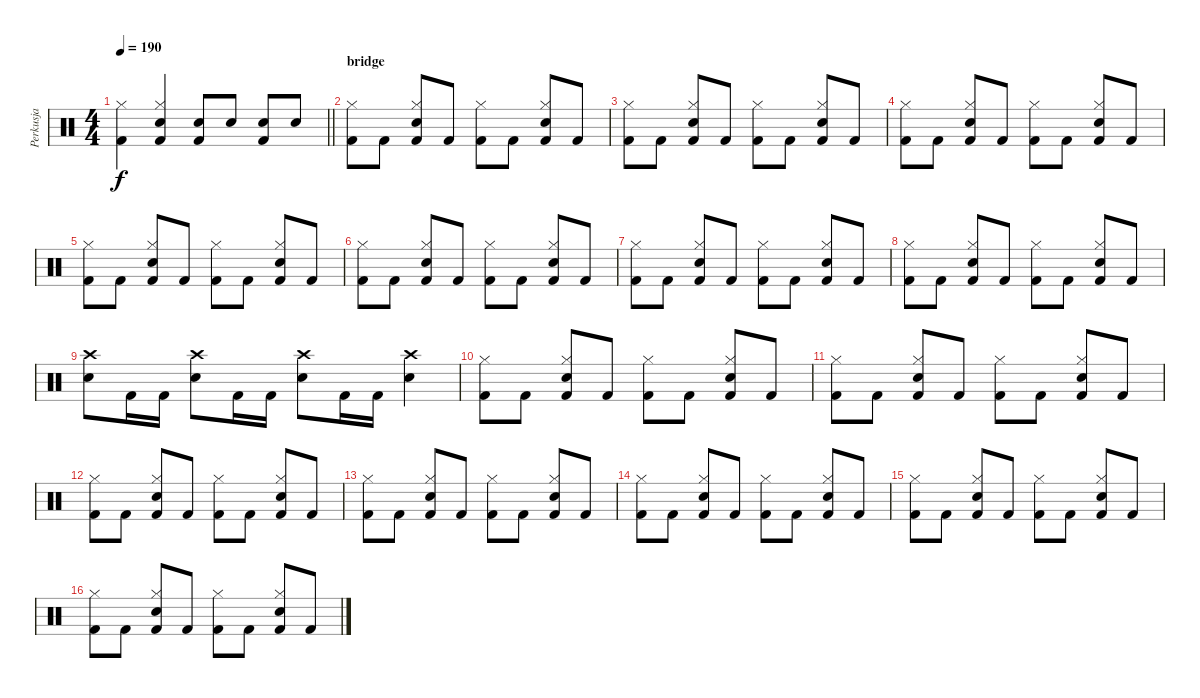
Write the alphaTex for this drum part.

\track ("Perkusja" "Perkusja") {instrument percussion}
\staff {score}
\articulation defaults
\ts (4 4)
\tempo 190
\clef neutral
\barLineRight lightlight
\ks c
("Kick (hit) 2" "Hi-Hat (closed)").4{dy f} ("Kick (hit) 2" "Hi-Hat (closed)" "Snare (hit) 2").4 ("Snare (hit) 2" "Kick (hit) 2").8 "Snare (hit) 2".8 ("Snare (hit) 2" "Kick (hit) 2").8 "Snare (hit) 2".8 |
\section ("" "bridge")
("Kick (hit) 2" "Hi-Hat (closed)").8 "Kick (hit) 2".8 ("Kick (hit) 2" "Snare (hit) 2" "Hi-Hat (closed)").8 "Kick (hit) 2".8 ("Kick (hit) 2" "Hi-Hat (closed)").8 "Kick (hit) 2".8 ("Kick (hit) 2" "Snare (hit) 2" "Hi-Hat (closed)").8 "Kick (hit) 2".8 |
("Kick (hit) 2" "Hi-Hat (closed)").8 "Kick (hit) 2".8 ("Kick (hit) 2" "Snare (hit) 2" "Hi-Hat (closed)").8 "Kick (hit) 2".8 ("Kick (hit) 2" "Hi-Hat (closed)").8 "Kick (hit) 2".8 ("Kick (hit) 2" "Snare (hit) 2" "Hi-Hat (closed)").8 "Kick (hit) 2".8 |
("Kick (hit) 2" "Hi-Hat (closed)").8 "Kick (hit) 2".8 ("Kick (hit) 2" "Snare (hit) 2" "Hi-Hat (closed)").8 "Kick (hit) 2".8 ("Kick (hit) 2" "Hi-Hat (closed)").8 "Kick (hit) 2".8 ("Kick (hit) 2" "Snare (hit) 2" "Hi-Hat (closed)").8 "Kick (hit) 2".8 |
("Kick (hit) 2" "Hi-Hat (closed)").8 "Kick (hit) 2".8 ("Kick (hit) 2" "Snare (hit) 2" "Hi-Hat (closed)").8 "Kick (hit) 2".8 ("Kick (hit) 2" "Hi-Hat (closed)").8 "Kick (hit) 2".8 ("Kick (hit) 2" "Snare (hit) 2" "Hi-Hat (closed)").8 "Kick (hit) 2".8 |
("Kick (hit) 2" "Hi-Hat (closed)").8 "Kick (hit) 2".8 ("Kick (hit) 2" "Snare (hit) 2" "Hi-Hat (closed)").8 "Kick (hit) 2".8 ("Kick (hit) 2" "Hi-Hat (closed)").8 "Kick (hit) 2".8 ("Kick (hit) 2" "Snare (hit) 2" "Hi-Hat (closed)").8 "Kick (hit) 2".8 |
("Kick (hit) 2" "Hi-Hat (closed)").8 "Kick (hit) 2".8 ("Kick (hit) 2" "Snare (hit) 2" "Hi-Hat (closed)").8 "Kick (hit) 2".8 ("Kick (hit) 2" "Hi-Hat (closed)").8 "Kick (hit) 2".8 ("Kick (hit) 2" "Snare (hit) 2" "Hi-Hat (closed)").8 "Kick (hit) 2".8 |
("Kick (hit) 2" "Hi-Hat (closed)").8 "Kick (hit) 2".8 ("Kick (hit) 2" "Snare (hit) 2" "Hi-Hat (closed)").8 "Kick (hit) 2".8 ("Kick (hit) 2" "Hi-Hat (closed)").8 "Kick (hit) 2".8 ("Kick (hit) 2" "Snare (hit) 2" "Hi-Hat (closed)").8 "Kick (hit) 2".8 |
("Crash high (hit)" "Snare (hit) 2").8 "Kick (hit) 2".16 "Kick (hit) 2".16 ("Crash high (hit)" "Snare (hit) 2").8 "Kick (hit) 2".16 "Kick (hit) 2".16 ("Crash high (hit)" "Snare (hit) 2").8 "Kick (hit) 2".16 "Kick (hit) 2".16 ("Crash high (hit)" "Snare (hit) 2").4 |
("Kick (hit) 2" "Hi-Hat (closed)").8 "Kick (hit) 2".8 ("Kick (hit) 2" "Snare (hit) 2" "Hi-Hat (closed)").8 "Kick (hit) 2".8 ("Kick (hit) 2" "Hi-Hat (closed)").8 "Kick (hit) 2".8 ("Kick (hit) 2" "Snare (hit) 2" "Hi-Hat (closed)").8 "Kick (hit) 2".8 |
("Kick (hit) 2" "Hi-Hat (closed)").8 "Kick (hit) 2".8 ("Kick (hit) 2" "Snare (hit) 2" "Hi-Hat (closed)").8 "Kick (hit) 2".8 ("Kick (hit) 2" "Hi-Hat (closed)").8 "Kick (hit) 2".8 ("Kick (hit) 2" "Snare (hit) 2" "Hi-Hat (closed)").8 "Kick (hit) 2".8 |
("Kick (hit) 2" "Hi-Hat (closed)").8 "Kick (hit) 2".8 ("Kick (hit) 2" "Snare (hit) 2" "Hi-Hat (closed)").8 "Kick (hit) 2".8 ("Kick (hit) 2" "Hi-Hat (closed)").8 "Kick (hit) 2".8 ("Kick (hit) 2" "Snare (hit) 2" "Hi-Hat (closed)").8 "Kick (hit) 2".8 |
("Kick (hit) 2" "Hi-Hat (closed)").8 "Kick (hit) 2".8 ("Kick (hit) 2" "Snare (hit) 2" "Hi-Hat (closed)").8 "Kick (hit) 2".8 ("Kick (hit) 2" "Hi-Hat (closed)").8 "Kick (hit) 2".8 ("Kick (hit) 2" "Snare (hit) 2" "Hi-Hat (closed)").8 "Kick (hit) 2".8 |
("Kick (hit) 2" "Hi-Hat (closed)").8 "Kick (hit) 2".8 ("Kick (hit) 2" "Snare (hit) 2" "Hi-Hat (closed)").8 "Kick (hit) 2".8 ("Kick (hit) 2" "Hi-Hat (closed)").8 "Kick (hit) 2".8 ("Kick (hit) 2" "Snare (hit) 2" "Hi-Hat (closed)").8 "Kick (hit) 2".8 |
("Kick (hit) 2" "Hi-Hat (closed)").8 "Kick (hit) 2".8 ("Kick (hit) 2" "Snare (hit) 2" "Hi-Hat (closed)").8 "Kick (hit) 2".8 ("Kick (hit) 2" "Hi-Hat (closed)").8 "Kick (hit) 2".8 ("Kick (hit) 2" "Snare (hit) 2" "Hi-Hat (closed)").8 "Kick (hit) 2".8 |
("Kick (hit) 2" "Hi-Hat (closed)").8 "Kick (hit) 2".8 ("Kick (hit) 2" "Snare (hit) 2" "Hi-Hat (closed)").8 "Kick (hit) 2".8 ("Kick (hit) 2" "Hi-Hat (closed)").8 "Kick (hit) 2".8 ("Kick (hit) 2" "Snare (hit) 2" "Hi-Hat (closed)").8 "Kick (hit) 2".8
